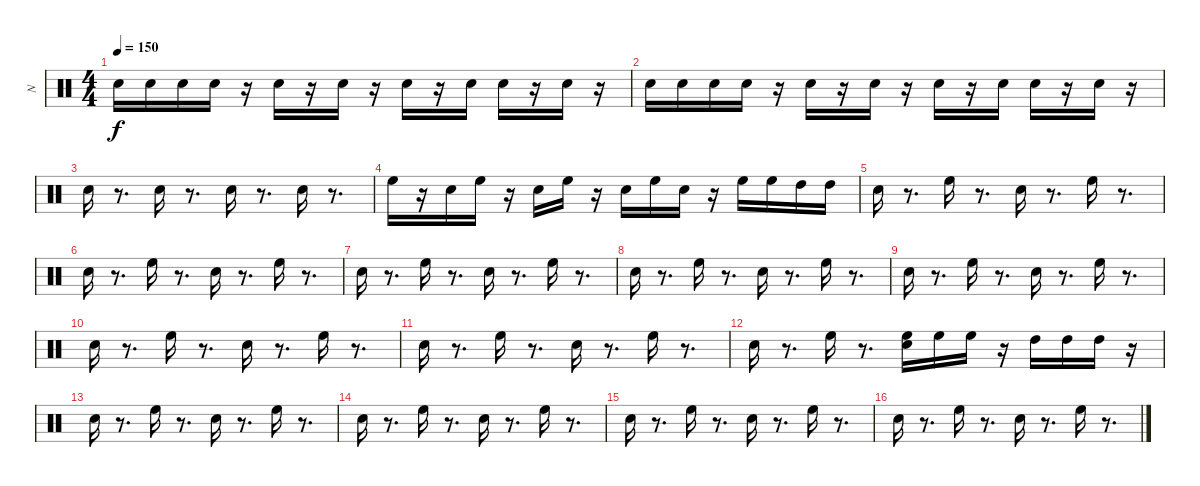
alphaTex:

\track ("N" "N") {instrument percussion}
\staff {score}
\articulation defaults
\ts (4 4)
\tempo 150
\clef neutral
\ks c "Electric Snare (hit)".16{dy f} "Electric Snare (hit)".16 "Electric Snare (hit)".16 "Electric Snare (hit)".16
r.16 "Electric Snare (hit)".16 r.16 "Electric Snare (hit)".16 r.16 "Electric Snare (hit)".16 r.16 "Electric Snare (hit)".16 "Electric Snare (hit)".16 r.16 "Electric Snare (hit)".16 r.16 |
"Electric Snare (hit)".16 "Electric Snare (hit)".16 "Electric Snare (hit)".16 "Electric Snare (hit)".16 r.16 "Electric Snare (hit)".16 r.16 "Electric Snare (hit)".16 r.16 "Electric Snare (hit)".16 r.16 "Electric Snare (hit)".16 "Electric Snare (hit)".16 r.16 "Electric Snare (hit)".16 r.16 |
"Electric Snare (hit)".16 r.8{d} "Electric Snare (hit)".16 r.8{d} "Electric Snare (hit)".16 r.8{d} "Electric Snare (hit)".16 r.8{d} |
"High Floor Tom (hit)".16 r.16 "Electric Snare (hit)".16 "High Floor Tom (hit)".16 r.16 "Electric Snare (hit)".16 "High Floor Tom (hit)".16 r.16 "Electric Snare (hit)".16 "High Floor Tom (hit)".16 "Electric Snare (hit)".16 r.16 "High Floor Tom (hit)".16 "High Floor Tom (hit)".16 "High Tom (hit)".16 "High Tom (hit)".16 |
"Electric Snare (hit)".16 r.8{d} "High Floor Tom (hit)".16 r.8{d} "Electric Snare (hit)".16 r.8{d} "High Floor Tom (hit)".16 r.8{d} |
"Electric Snare (hit)".16 r.8{d} "High Floor Tom (hit)".16 r.8{d} "Electric Snare (hit)".16 r.8{d} "High Floor Tom (hit)".16 r.8{d} |
"Electric Snare (hit)".16 r.8{d} "High Floor Tom (hit)".16 r.8{d} "Electric Snare (hit)".16 r.8{d} "High Floor Tom (hit)".16 r.8{d} |
"Electric Snare (hit)".16 r.8{d} "High Floor Tom (hit)".16 r.8{d} "Electric Snare (hit)".16 r.8{d} "High Floor Tom (hit)".16 r.8{d} |
"Electric Snare (hit)".16 r.8{d} "High Floor Tom (hit)".16 r.8{d} "Electric Snare (hit)".16 r.8{d} "High Floor Tom (hit)".16 r.8{d} |
"Electric Snare (hit)".16 r.8{d} "High Floor Tom (hit)".16 r.8{d} "Electric Snare (hit)".16 r.8{d} "High Floor Tom (hit)".16 r.8{d} |
"Electric Snare (hit)".16 r.8{d} "High Floor Tom (hit)".16 r.8{d} "Electric Snare (hit)".16 r.8{d} "High Floor Tom (hit)".16 r.8{d} |
"Electric Snare (hit)".16 r.8{d} "High Floor Tom (hit)".16 r.8{d} ("High Floor Tom (hit)" "Electric Snare (hit)").16 "High Floor Tom (hit)".16 "High Floor Tom (hit)".16 r.16 "High Tom (hit)".16 "High Tom (hit)".16 "High Tom (hit)".16 r.16 |
"Electric Snare (hit)".16 r.8{d} "High Floor Tom (hit)".16 r.8{d} "Electric Snare (hit)".16 r.8{d} "High Floor Tom (hit)".16 r.8{d} |
"Electric Snare (hit)".16 r.8{d} "High Floor Tom (hit)".16 r.8{d} "Electric Snare (hit)".16 r.8{d} "High Floor Tom (hit)".16 r.8{d} |
"Electric Snare (hit)".16 r.8{d} "High Floor Tom (hit)".16 r.8{d} "Electric Snare (hit)".16 r.8{d} "High Floor Tom (hit)".16 r.8{d} |
"Electric Snare (hit)".16 r.8{d} "High Floor Tom (hit)".16 r.8{d} "Electric Snare (hit)".16 r.8{d} "High Floor Tom (hit)".16 r.8{d}
